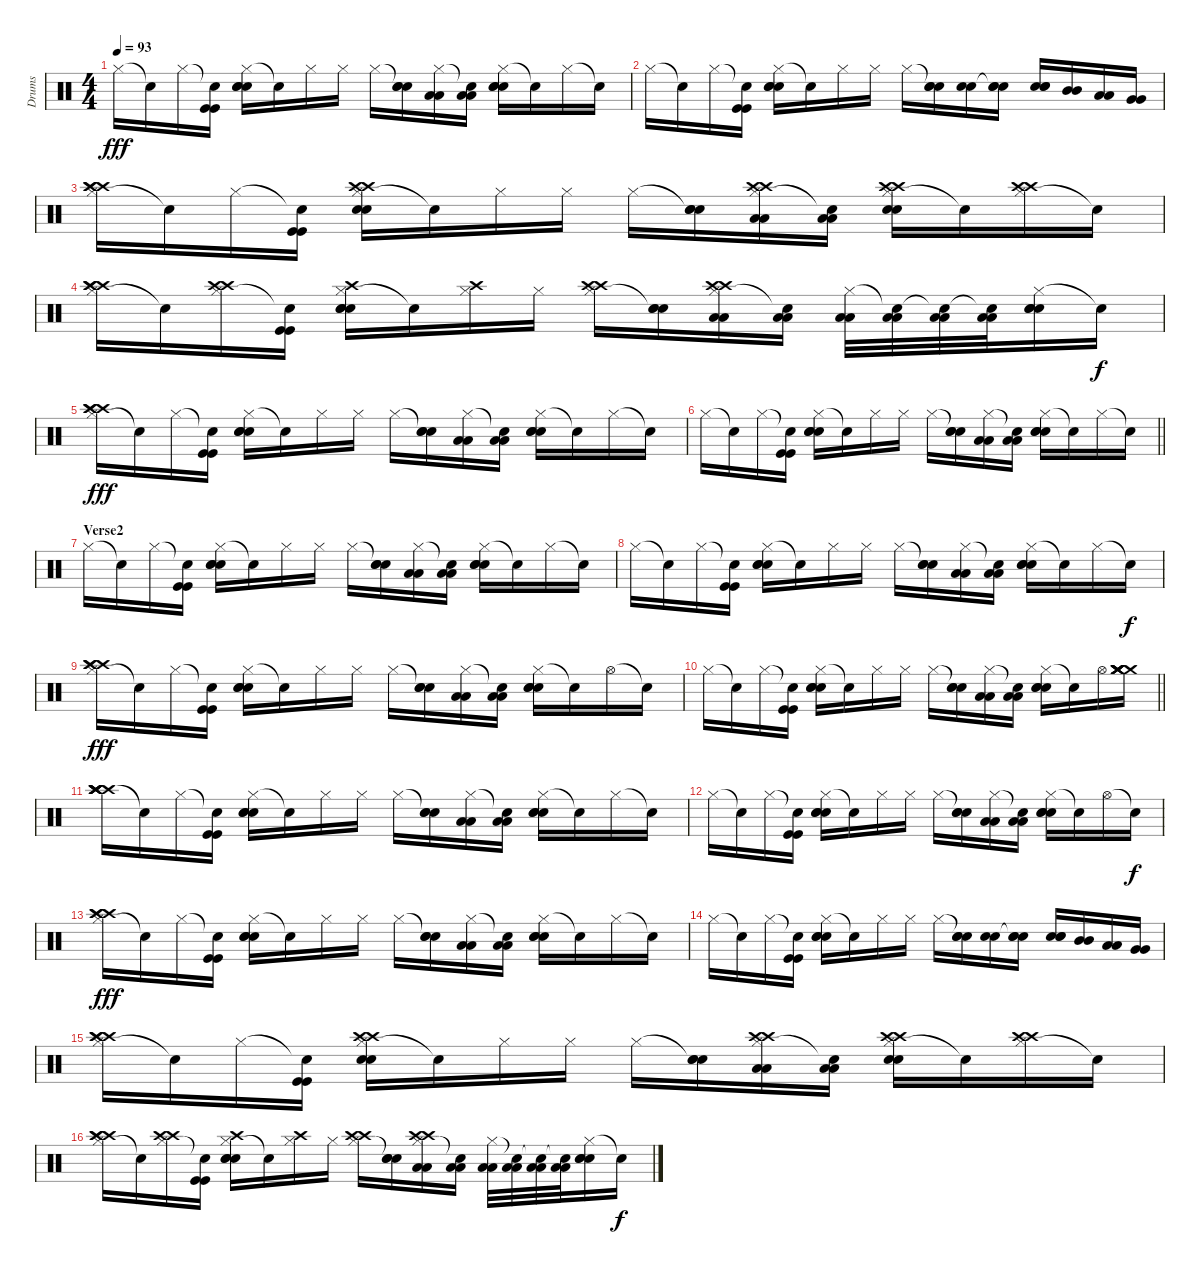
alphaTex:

\track ("Drums" "Drums") {instrument percussion}
\staff {score}
\articulation defaults
\ts (4 4)
\tempo 93
\clef neutral
\ks c "Hi-Hat (closed)".16{dy fff} "Snare (hit)"{t}.16 "Hi-Hat (closed)".16
("Snare (hit)"{t} "Kick (hit)" "Kick (hit)").16 ("Hi-Hat (closed)" "Snare (hit) 2" "Snare (hit) 2" "Snare (hit) 2").16 "Snare (hit)"{t}.16 "Hi-Hat (closed)".16 "Hi-Hat (closed)".16 "Hi-Hat (closed)".16 ("Snare (hit)"{t} "Snare (hit) 2" "Snare (hit) 2").16 ("Hi-Hat (closed)" "Low Tom (hit)" "Low Tom (hit)").16 ("Snare (hit)"{t} "Low Tom (hit)" "Low Tom (hit)").16 ("Hi-Hat (closed)" "Snare (hit) 2" "Snare (hit) 2" "Snare (hit) 2").16 "Snare (hit)"{t}.16 "Hi-Hat (closed)".16 "Snare (hit)"{t}.16 |
"Hi-Hat (closed)".16 "Snare (hit)"{t}.16 "Hi-Hat (closed)".16 ("Snare (hit)"{t} "Kick (hit)" "Kick (hit)").16 ("Hi-Hat (closed)" "Snare (hit) 2" "Snare (hit) 2" "Snare (hit) 2").16 "Snare (hit)"{t}.16 "Hi-Hat (closed)".16 "Hi-Hat (closed)".16 "Hi-Hat (closed)".16 ("Snare (hit)"{t} "Snare (hit) 2" "Snare (hit) 2").16 ("Snare (hit) 2" "Snare (hit) 2").16 ("Snare (hit)"{t} "Snare (hit) 2" "Snare (hit) 2").16 ("Snare (hit) 2" "Snare (hit) 2" "Snare (hit) 2").16 ("Mid Tom (hit)" "Mid Tom (hit)").16 ("Low Tom (hit)" "Low Tom (hit)").16 ("Very Low Tom (hit)" "Very Low Tom (hit)").16 |
("Hi-Hat (closed)" "Crash high (hit)" "Crash high (hit)" "Crash high (hit)").16 "Snare (hit)"{t}.16 "Hi-Hat (closed)".16 ("Snare (hit)"{t} "Kick (hit)" "Kick (hit)").16 ("Hi-Hat (closed)" "Snare (hit) 2" "Snare (hit) 2" "Crash high (hit)" "Crash high (hit)").16 "Snare (hit)"{t}.16 "Hi-Hat (closed)".16 "Hi-Hat (closed)".16 "Hi-Hat (closed)".16 ("Snare (hit)"{t} "Snare (hit) 2" "Snare (hit) 2").16 ("Hi-Hat (closed)" "Low Tom (hit)" "Low Tom (hit)" "Crash high (hit)" "Crash high (hit)").16 ("Snare (hit)"{t} "Low Tom (hit)" "Low Tom (hit)").16 ("Hi-Hat (closed)" "Snare (hit) 2" "Snare (hit) 2" "Crash high (hit)" "Crash high (hit)").16 "Snare (hit)"{t}.16 ("Hi-Hat (closed)" "Crash high (hit)" "Crash high (hit)").16 "Snare (hit)"{t}.16 |
("Hi-Hat (closed)" "Crash high (hit)" "Crash high (hit)" "Crash high (hit)").16 "Snare (hit)"{t}.16 ("Hi-Hat (closed)" "Crash high (hit)" "Crash high (hit)").16 ("Snare (hit)"{t} "Kick (hit)" "Kick (hit)").16 ("Hi-Hat (closed)" "Snare (hit) 2" "Snare (hit) 2" "Snare (hit) 2" "Crash high (hit)").16 "Snare (hit)"{t}.16 ("Hi-Hat (closed)" "Crash high (hit)").16 "Hi-Hat (closed)".16 ("Hi-Hat (closed)" "Crash high (hit)" "Crash high (hit)").16 ("Snare (hit)"{t} "Snare (hit) 2" "Snare (hit) 2").16 ("Hi-Hat (closed)" "Low Tom (hit)" "Low Tom (hit)" "Crash high (hit)" "Crash high (hit)").16 ("Snare (hit)"{t} "Low Tom (hit)" "Low Tom (hit)").16 ("Hi-Hat (closed)" "Low Tom (hit)" "Low Tom (hit)").32 ("Snare (hit)"{t} "Low Tom (hit)" "Low Tom (hit)").32 ("Snare (hit)"{t} "Low Tom (hit)" "Low Tom (hit)").32 ("Snare (hit)"{t} "Low Tom (hit)" "Low Tom (hit)").32 ("Hi-Hat (closed)" "Snare (hit) 2" "Snare (hit) 2" "Snare (hit) 2").16 "Snare (hit)"{t}.16{dy f} |
("Hi-Hat (closed)" "Crash high (hit)" "Crash high (hit)" "Crash high (hit)").16{dy fff} "Snare (hit)"{t}.16 "Hi-Hat (closed)".16 ("Snare (hit)"{t} "Kick (hit)" "Kick (hit)").16 ("Hi-Hat (closed)" "Snare (hit) 2" "Snare (hit) 2" "Snare (hit) 2").16 "Snare (hit)"{t}.16 "Hi-Hat (closed)".16 "Hi-Hat (closed)".16 "Hi-Hat (closed)".16 ("Snare (hit)"{t} "Snare (hit) 2" "Snare (hit) 2").16 ("Hi-Hat (closed)" "Low Tom (hit)" "Low Tom (hit)").16 ("Snare (hit)"{t} "Low Tom (hit)" "Low Tom (hit)").16 ("Hi-Hat (closed)" "Snare (hit) 2" "Snare (hit) 2" "Snare (hit) 2").16 "Snare (hit)"{t}.16 "Hi-Hat (closed)".16 "Snare (hit)"{t}.16 |
\barLineRight lightlight "Hi-Hat (closed)".16 "Snare (hit)"{t}.16 "Hi-Hat (closed)".16
("Snare (hit)"{t} "Kick (hit)" "Kick (hit)").16 ("Hi-Hat (closed)" "Snare (hit) 2" "Snare (hit) 2" "Snare (hit) 2").16 "Snare (hit)"{t}.16 "Hi-Hat (closed)".16 "Hi-Hat (closed)".16 "Hi-Hat (closed)".16 ("Snare (hit)"{t} "Snare (hit) 2" "Snare (hit) 2").16 ("Hi-Hat (closed)" "Low Tom (hit)" "Low Tom (hit)").16 ("Snare (hit)"{t} "Low Tom (hit)" "Low Tom (hit)").16 ("Hi-Hat (closed)" "Snare (hit) 2" "Snare (hit) 2" "Snare (hit) 2").16 "Snare (hit)"{t}.16 "Hi-Hat (closed)".16 "Snare (hit)"{t}.16 |
\section ("" "Verse2")
"Hi-Hat (closed)".16 "Snare (hit)"{t}.16 "Hi-Hat (closed)".16 ("Snare (hit)"{t} "Kick (hit)" "Kick (hit)").16 ("Hi-Hat (closed)" "Snare (hit) 2" "Snare (hit) 2" "Snare (hit) 2").16 "Snare (hit)"{t}.16 "Hi-Hat (closed)".16 "Hi-Hat (closed)".16 "Hi-Hat (closed)".16 ("Snare (hit)"{t} "Snare (hit) 2" "Snare (hit) 2").16 ("Hi-Hat (closed)" "Low Tom (hit)" "Low Tom (hit)").16 ("Snare (hit)"{t} "Low Tom (hit)" "Low Tom (hit)").16 ("Hi-Hat (closed)" "Snare (hit) 2" "Snare (hit) 2" "Snare (hit) 2").16 "Snare (hit)"{t}.16 "Hi-Hat (closed)".16 "Snare (hit)"{t}.16 |
"Hi-Hat (closed)".16 "Snare (hit)"{t}.16 "Hi-Hat (closed)".16 ("Snare (hit)"{t} "Kick (hit)" "Kick (hit)").16 ("Hi-Hat (closed)" "Snare (hit) 2" "Snare (hit) 2" "Snare (hit) 2").16 "Snare (hit)"{t}.16 "Hi-Hat (closed)".16 "Hi-Hat (closed)".16 "Hi-Hat (closed)".16 ("Snare (hit)"{t} "Snare (hit) 2" "Snare (hit) 2").16 ("Hi-Hat (closed)" "Low Tom (hit)" "Low Tom (hit)").16 ("Snare (hit)"{t} "Low Tom (hit)" "Low Tom (hit)").16 ("Hi-Hat (closed)" "Snare (hit) 2" "Snare (hit) 2" "Snare (hit) 2").16 "Snare (hit)"{t}.16 "Hi-Hat (closed)".16 "Snare (hit)"{t}.16{dy f} |
("Hi-Hat (closed)" "Crash high (hit)" "Crash high (hit)" "Crash high (hit)").16{dy fff} "Snare (hit)"{t}.16 "Hi-Hat (closed)".16 ("Snare (hit)"{t} "Kick (hit)" "Kick (hit)").16 ("Hi-Hat (closed)" "Snare (hit) 2" "Snare (hit) 2" "Snare (hit) 2").16 "Snare (hit)"{t}.16 "Hi-Hat (closed)".16 "Hi-Hat (closed)".16 "Hi-Hat (closed)".16 ("Snare (hit)"{t} "Snare (hit) 2" "Snare (hit) 2").16 ("Hi-Hat (closed)" "Low Tom (hit)" "Low Tom (hit)").16 ("Snare (hit)"{t} "Low Tom (hit)" "Low Tom (hit)").16 ("Hi-Hat (closed)" "Snare (hit) 2" "Snare (hit) 2" "Snare (hit) 2").16 "Snare (hit)"{t}.16 "Hi-Hat (open)".16 "Snare (hit)"{t}.16 |
\barLineRight lightlight "Hi-Hat (closed)".16 "Snare (hit)"{t}.16 "Hi-Hat (closed)".16
("Snare (hit)"{t} "Kick (hit)" "Kick (hit)").16 ("Hi-Hat (closed)" "Snare (hit) 2" "Snare (hit) 2" "Snare (hit) 2").16 "Snare (hit)"{t}.16 "Hi-Hat (closed)".16 "Hi-Hat (closed)".16 "Hi-Hat (closed)".16 ("Snare (hit)"{t} "Snare (hit) 2" "Snare (hit) 2").16 ("Hi-Hat (closed)" "Low Tom (hit)" "Low Tom (hit)").16 ("Snare (hit)"{t} "Low Tom (hit)" "Low Tom (hit)").16 ("Hi-Hat (closed)" "Snare (hit) 2" "Snare (hit) 2" "Snare (hit) 2").16 "Snare (hit)"{t}.16 "Hi-Hat (open)".16 ("Crash medium (hit)" "Crash medium (hit)" "Crash medium (hit)" "Crash medium (hit)" "Crash medium (hit)" "Crash medium (hit)").16 |
("Crash high (hit)" "Crash high (hit)" "Crash high (hit)" "Crash high (hit)" "Crash high (hit)" "Crash high (hit)").16 "Snare (hit)"{t}.16 "Hi-Hat (closed)".16 ("Snare (hit)"{t} "Kick (hit)" "Kick (hit)").16 ("Hi-Hat (closed)" "Snare (hit) 2" "Snare (hit) 2" "Snare (hit) 2").16 "Snare (hit)"{t}.16 "Hi-Hat (closed)".16 "Hi-Hat (closed)".16 "Hi-Hat (closed)".16 ("Snare (hit)"{t} "Snare (hit) 2" "Snare (hit) 2").16 ("Hi-Hat (closed)" "Low Tom (hit)" "Low Tom (hit)").16 ("Snare (hit)"{t} "Low Tom (hit)" "Low Tom (hit)").16 ("Hi-Hat (closed)" "Snare (hit) 2" "Snare (hit) 2" "Snare (hit) 2").16 "Snare (hit)"{t}.16 "Hi-Hat (closed)".16 "Snare (hit)"{t}.16 |
"Hi-Hat (closed)".16 "Snare (hit)"{t}.16 "Hi-Hat (closed)".16 ("Snare (hit)"{t} "Kick (hit)" "Kick (hit)").16 ("Hi-Hat (closed)" "Snare (hit) 2" "Snare (hit) 2" "Snare (hit) 2").16 "Snare (hit)"{t}.16 "Hi-Hat (closed)".16 "Hi-Hat (closed)".16 "Hi-Hat (closed)".16 ("Snare (hit)"{t} "Snare (hit) 2" "Snare (hit) 2").16 ("Hi-Hat (closed)" "Low Tom (hit)" "Low Tom (hit)").16 ("Snare (hit)"{t} "Low Tom (hit)" "Low Tom (hit)").16 ("Hi-Hat (closed)" "Snare (hit) 2" "Snare (hit) 2" "Snare (hit) 2").16 "Snare (hit)"{t}.16 "Hi-Hat (open)".16 "Snare (hit)"{t}.16{dy f} |
("Hi-Hat (closed)" "Crash high (hit)" "Crash high (hit)" "Crash high (hit)").16{dy fff} "Snare (hit)"{t}.16 "Hi-Hat (closed)".16 ("Snare (hit)"{t} "Kick (hit)" "Kick (hit)").16 ("Hi-Hat (closed)" "Snare (hit) 2" "Snare (hit) 2" "Snare (hit) 2").16 "Snare (hit)"{t}.16 "Hi-Hat (closed)".16 "Hi-Hat (closed)".16 "Hi-Hat (closed)".16 ("Snare (hit)"{t} "Snare (hit) 2" "Snare (hit) 2").16 ("Hi-Hat (closed)" "Low Tom (hit)" "Low Tom (hit)").16 ("Snare (hit)"{t} "Low Tom (hit)" "Low Tom (hit)").16 ("Hi-Hat (closed)" "Snare (hit) 2" "Snare (hit) 2" "Snare (hit) 2").16 "Snare (hit)"{t}.16 "Hi-Hat (closed)".16 "Snare (hit)"{t}.16 |
"Hi-Hat (closed)".16 "Snare (hit)"{t}.16 "Hi-Hat (closed)".16 ("Snare (hit)"{t} "Kick (hit)" "Kick (hit)").16 ("Hi-Hat (closed)" "Snare (hit) 2" "Snare (hit) 2" "Snare (hit) 2").16 "Snare (hit)"{t}.16 "Hi-Hat (closed)".16 "Hi-Hat (closed)".16 "Hi-Hat (closed)".16 ("Snare (hit)"{t} "Snare (hit) 2" "Snare (hit) 2").16 ("Snare (hit) 2" "Snare (hit) 2").16 ("Snare (hit)"{t} "Snare (hit) 2" "Snare (hit) 2").16 ("Snare (hit) 2" "Snare (hit) 2" "Snare (hit) 2").16 ("Mid Tom (hit)" "Mid Tom (hit)").16 ("Low Tom (hit)" "Low Tom (hit)").16 ("Very Low Tom (hit)" "Very Low Tom (hit)").16 |
("Hi-Hat (closed)" "Crash high (hit)" "Crash high (hit)" "Crash high (hit)").16 "Snare (hit)"{t}.16 "Hi-Hat (closed)".16 ("Snare (hit)"{t} "Kick (hit)" "Kick (hit)").16 ("Hi-Hat (closed)" "Snare (hit) 2" "Snare (hit) 2" "Crash high (hit)" "Crash high (hit)").16 "Snare (hit)"{t}.16 "Hi-Hat (closed)".16 "Hi-Hat (closed)".16 "Hi-Hat (closed)".16 ("Snare (hit)"{t} "Snare (hit) 2" "Snare (hit) 2").16 ("Hi-Hat (closed)" "Low Tom (hit)" "Low Tom (hit)" "Crash high (hit)" "Crash high (hit)").16 ("Snare (hit)"{t} "Low Tom (hit)" "Low Tom (hit)").16 ("Hi-Hat (closed)" "Snare (hit) 2" "Snare (hit) 2" "Crash high (hit)" "Crash high (hit)").16 "Snare (hit)"{t}.16 ("Hi-Hat (closed)" "Crash high (hit)" "Crash high (hit)").16 "Snare (hit)"{t}.16 |
("Hi-Hat (closed)" "Crash high (hit)" "Crash high (hit)" "Crash high (hit)").16 "Snare (hit)"{t}.16 ("Hi-Hat (closed)" "Crash high (hit)" "Crash high (hit)").16 ("Snare (hit)"{t} "Kick (hit)" "Kick (hit)").16 ("Hi-Hat (closed)" "Snare (hit) 2" "Snare (hit) 2" "Snare (hit) 2" "Crash high (hit)").16 "Snare (hit)"{t}.16 ("Hi-Hat (closed)" "Crash high (hit)").16 "Hi-Hat (closed)".16 ("Hi-Hat (closed)" "Crash high (hit)" "Crash high (hit)").16 ("Snare (hit)"{t} "Snare (hit) 2" "Snare (hit) 2").16 ("Hi-Hat (closed)" "Low Tom (hit)" "Low Tom (hit)" "Crash high (hit)" "Crash high (hit)").16 ("Snare (hit)"{t} "Low Tom (hit)" "Low Tom (hit)").16 ("Hi-Hat (closed)" "Low Tom (hit)" "Low Tom (hit)").32 ("Snare (hit)"{t} "Low Tom (hit)" "Low Tom (hit)").32 ("Snare (hit)"{t} "Low Tom (hit)" "Low Tom (hit)").32 ("Snare (hit)"{t} "Low Tom (hit)" "Low Tom (hit)").32 ("Hi-Hat (closed)" "Snare (hit) 2" "Snare (hit) 2" "Snare (hit) 2").16 "Snare (hit)"{t}.16{dy f}
